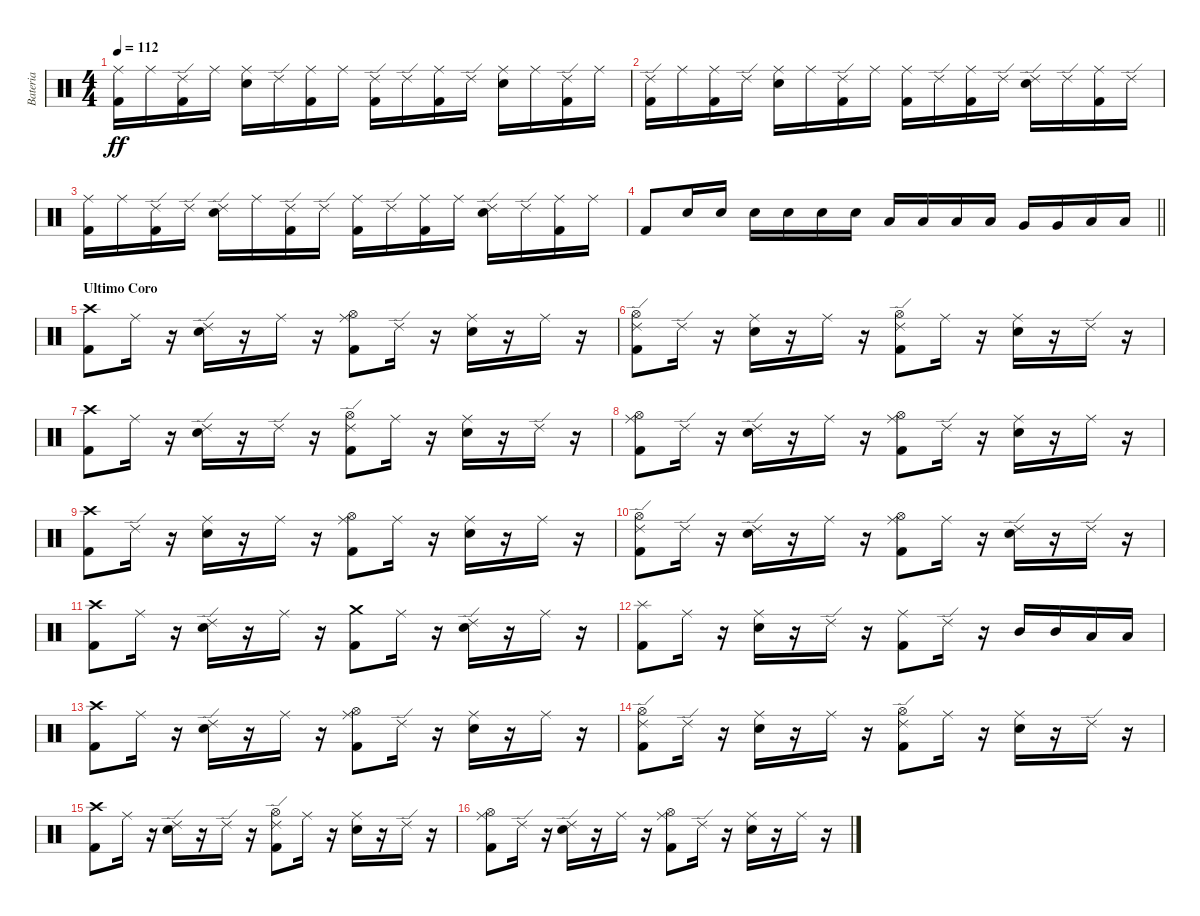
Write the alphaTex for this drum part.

\track ("Bateria" "Bateria") {instrument percussion}
\staff {score}
\articulation defaults
\ts (4 4)
\tempo 112
\clef neutral
\ks c
("Ride (middle)" "Kick (hit) 2").16{dy ff} "Ride (middle)".16 ("Ride (edge) 2" "Kick (hit) 2").16 "Ride (middle)".16 ("Ride (middle)" "Snare (hit) 2").16 "Ride (edge) 2".16 ("Ride (middle)" "Kick (hit) 2").16 "Ride (middle)".16 ("Ride (edge) 2" "Kick (hit) 2").16 "Ride (edge) 2".16 ("Ride (middle)" "Kick (hit) 2").16 "Ride (edge) 2".16 ("Ride (middle)" "Snare (hit) 2").16 "Ride (middle)".16 ("Ride (edge) 2" "Kick (hit) 2").16 "Ride (middle)".16 |
("Kick (hit) 2" "Ride (edge) 2").16 "Ride (middle)".16 ("Kick (hit) 2" "Ride (middle)").16 "Ride (edge) 2".16 ("Ride (middle)" "Snare (hit) 2").16 "Ride (middle)".16 ("Kick (hit) 2" "Ride (edge) 2").16 "Ride (middle)".16 ("Kick (hit) 2" "Ride (middle)").16 "Ride (edge) 2".16 ("Kick (hit) 2" "Ride (middle)").16 "Ride (edge) 2".16 ("Ride (edge) 2" "Snare (hit) 2").16 "Ride (edge) 2".16 ("Kick (hit) 2" "Ride (middle)").16 "Ride (edge) 2".16 |
("Kick (hit) 2" "Ride (middle)").16 "Ride (middle)".16 ("Kick (hit) 2" "Ride (edge) 2").16 "Ride (edge) 2".16 ("Ride (edge) 2" "Snare (hit) 2").16 "Ride (middle)".16 ("Kick (hit) 2" "Ride (edge) 2").16 "Ride (edge) 2".16 ("Kick (hit) 2" "Ride (middle)").16 "Ride (edge) 2".16 ("Kick (hit) 2" "Ride (middle)").16 "Ride (middle)".16 ("Ride (edge) 2" "Snare (hit) 2").16 "Ride (edge) 2".16 ("Kick (hit) 2" "Ride (middle)").16 "Ride (middle)".16 |
\barLineRight lightlight "Kick (hit) 2".8 "Snare (hit) 2".16 "Snare (hit) 2".16 "Snare (hit) 2".16 "Snare (hit) 2".16 "Snare (hit) 2".16 "Snare (hit) 2".16 "Low Tom (hit)".16 "Low Tom (hit)".16 "Low Floor Tom (hit)".16 "Low Floor Tom (hit)".16 "Very Low Tom (hit)".16 "Very Low Tom (hit)".16 "Low Floor Tom (hit)".16 "Low Floor Tom (hit)".16
|
\section ("" "Ultimo Coro")
("Crash high (hit)" "Kick (hit) 2").8 "Ride (middle)".16 r.16 ("Ride (edge) 2" "Snare (hit) 2").16 r.16 "Ride (middle)".16 r.16 ("Ride (middle)" "Hi-Hat (open)" "Kick (hit) 2").8 "Ride (edge) 2".16 r.16 ("Ride (middle)" "Snare (hit) 2").16 r.16 "Ride (middle)".16 r.16 |
("Ride (edge) 2" "Kick (hit) 2" "Hi-Hat (open)").8 "Ride (edge) 2".16 r.16 ("Ride (middle)" "Snare (hit) 2").16 r.16 "Ride (middle)".16 r.16 ("Ride (edge) 2" "Kick (hit) 2" "Hi-Hat (open)").8 "Ride (middle)".16 r.16 ("Ride (middle)" "Snare (hit) 2").16 r.16 "Ride (edge) 2".16 r.16 |
("Kick (hit) 2" "Crash high (hit)").8 "Ride (middle)".16 r.16 ("Ride (edge) 2" "Snare (hit) 2").16 r.16 "Ride (edge) 2".16 r.16 ("Ride (edge) 2" "Kick (hit) 2" "Hi-Hat (open)").8 "Ride (middle)".16 r.16 ("Ride (middle)" "Snare (hit) 2").16 r.16 "Ride (edge) 2".16 r.16 |
("Ride (middle)" "Hi-Hat (open)" "Kick (hit) 2").8 "Ride (edge) 2".16 r.16 ("Ride (edge) 2" "Snare (hit) 2").16 r.16 "Ride (middle)".16 r.16 ("Ride (middle)" "Kick (hit) 2" "Hi-Hat (open)").8 "Ride (edge) 2".16 r.16 ("Ride (middle)" "Snare (hit) 2").16 r.16 "Ride (middle)".16 r.16 |
("Kick (hit) 2" "Crash high (hit)").8 "Ride (edge) 2".16 r.16 ("Ride (middle)" "Snare (hit) 2").16 r.16 "Ride (middle)".16 r.16 ("Ride (middle)" "Kick (hit) 2" "Hi-Hat (open)").8 "Ride (middle)".16 r.16 ("Ride (middle)" "Snare (hit) 2").16 r.16 "Ride (middle)".16 r.16 |
("Ride (edge) 2" "Kick (hit) 2" "Hi-Hat (open)").8 "Ride (edge) 2".16 r.16 ("Ride (edge) 2" "Snare (hit) 2").16 r.16 "Ride (middle)".16 r.16 ("Ride (middle)" "Kick (hit) 2" "Hi-Hat (open)").8 "Ride (middle)".16 r.16 ("Ride (edge) 2" "Snare (hit) 2").16 r.16 "Ride (edge) 2".16 r.16 |
("Crash high (hit)" "Kick (hit) 2").8 "Ride (middle)".16 r.16 ("Ride (edge) 2" "Snare (hit) 2").16 r.16 "Ride (middle)".16 r.16 ("Crash medium (hit)" "Kick (hit) 2").8 "Ride (middle)".16 r.16 ("Ride (edge) 2" "Snare (hit) 2").16 r.16 "Ride (middle)".16 r.16 |
("Splash (hit)" "Kick (hit) 2").8 "Ride (middle)".16 r.16 ("Ride (middle)" "Snare (hit) 2").16 r.16 "Ride (edge) 2".16 r.16 ("Ride (middle)" "Kick (hit) 2").8 "Ride (edge) 2".16 r.16 "Mid Tom (hit)".16 "Mid Tom (hit)".16 "Low Tom (hit)".16 "Low Tom (hit)".16 |
("Crash high (hit)" "Kick (hit) 2").8 "Ride (middle)".16 r.16 ("Ride (edge) 2" "Snare (hit) 2").16 r.16 "Ride (middle)".16 r.16 ("Ride (middle)" "Hi-Hat (open)" "Kick (hit) 2").8 "Ride (edge) 2".16 r.16 ("Ride (middle)" "Snare (hit) 2").16 r.16 "Ride (middle)".16 r.16 |
("Ride (edge) 2" "Kick (hit) 2" "Hi-Hat (open)").8 "Ride (edge) 2".16 r.16 ("Ride (middle)" "Snare (hit) 2").16 r.16 "Ride (middle)".16 r.16 ("Ride (edge) 2" "Kick (hit) 2" "Hi-Hat (open)").8 "Ride (middle)".16 r.16 ("Ride (middle)" "Snare (hit) 2").16 r.16 "Ride (edge) 2".16 r.16 |
("Kick (hit) 2" "Crash high (hit)").8 "Ride (middle)".16 r.16 ("Ride (edge) 2" "Snare (hit) 2").16 r.16 "Ride (edge) 2".16 r.16 ("Ride (edge) 2" "Kick (hit) 2" "Hi-Hat (open)").8 "Ride (middle)".16 r.16 ("Ride (middle)" "Snare (hit) 2").16 r.16 "Ride (edge) 2".16 r.16 |
("Ride (middle)" "Hi-Hat (open)" "Kick (hit) 2").8 "Ride (edge) 2".16 r.16 ("Ride (edge) 2" "Snare (hit) 2").16 r.16 "Ride (middle)".16 r.16 ("Ride (middle)" "Kick (hit) 2" "Hi-Hat (open)").8 "Ride (edge) 2".16 r.16 ("Ride (middle)" "Snare (hit) 2").16 r.16 "Ride (middle)".16 r.16
